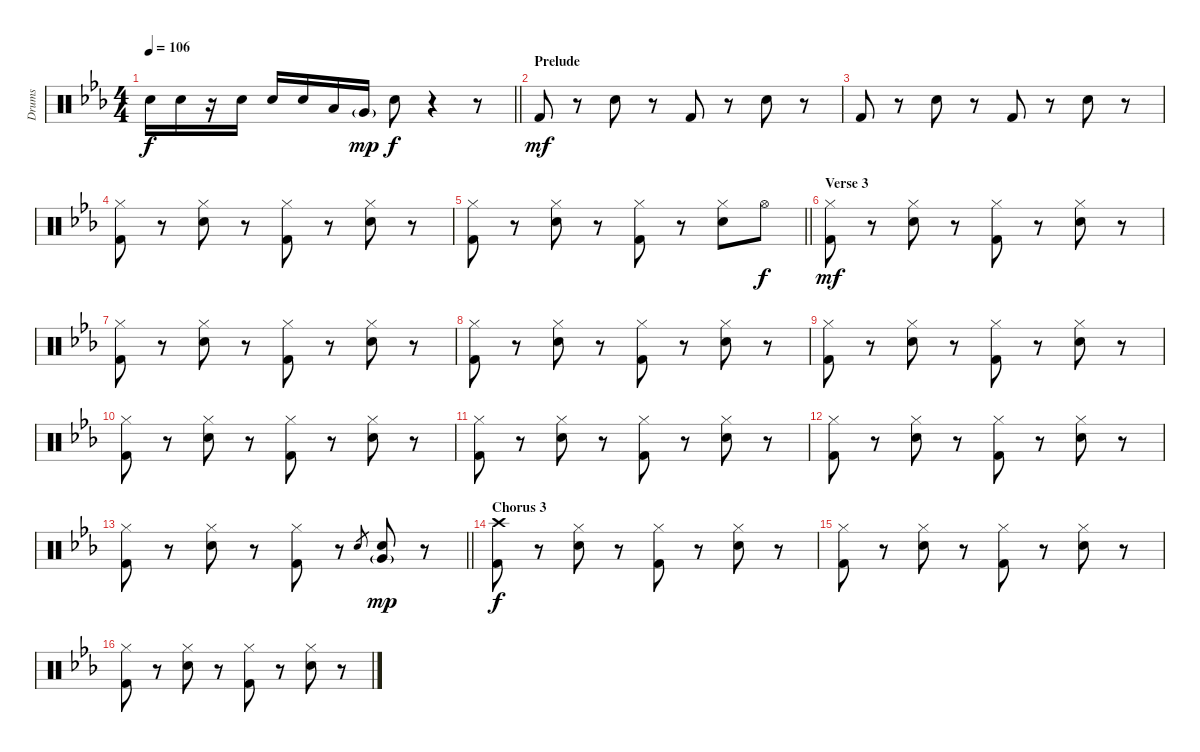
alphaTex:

\track ("Drums" "Drums") {instrument percussion}
\staff {score}
\articulation defaults
\ts (4 4)
\tempo 106
\clef neutral
\barLineRight lightlight
\ks cminor "Snare (hit) 2".16{dy f} "Snare (hit) 2".16
r.16 "Snare (hit) 2".16 "Snare (hit) 2".16 "Snare (hit) 2".16 "Low Tom (hit)".16 "Very Low Tom (hit)"{g}.16{dy mp} "Snare (hit) 2".8{dy f} r.4 r.8 |
\section ("" "Prelude")
"Kick (hit) 2".8{dy mf} r.8 "Snare (hit) 2".8 r.8 "Kick (hit) 2".8 r.8 "Snare (hit) 2".8 r.8 |
"Kick (hit) 2".8 r.8 "Snare (hit) 2".8 r.8 "Kick (hit) 2".8 r.8 "Snare (hit) 2".8 r.8 |
("Hi-Hat (closed)" "Kick (hit) 2").8 r.8 ("Hi-Hat (closed)" "Snare (hit) 2").8 r.8 ("Hi-Hat (closed)" "Kick (hit) 2").8 r.8 ("Hi-Hat (closed)" "Snare (hit) 2").8 r.8 |
\barLineRight lightlight
("Hi-Hat (closed)" "Kick (hit) 2").8 r.8 ("Hi-Hat (closed)" "Snare (hit) 2").8 r.8 ("Hi-Hat (closed)" "Kick (hit) 2").8 r.8 ("Hi-Hat (closed)" "Snare (hit) 2").8 "Hi-Hat (open)".8{dy f} |
\section ("" "Verse 3")
("Hi-Hat (closed)" "Kick (hit) 2").8{dy mf} r.8 ("Hi-Hat (closed)" "Snare (hit) 2").8 r.8 ("Hi-Hat (closed)" "Kick (hit) 2").8 r.8 ("Hi-Hat (closed)" "Snare (hit) 2").8 r.8 |
("Hi-Hat (closed)" "Kick (hit) 2").8 r.8 ("Hi-Hat (closed)" "Snare (hit) 2").8 r.8 ("Hi-Hat (closed)" "Kick (hit) 2").8 r.8 ("Hi-Hat (closed)" "Snare (hit) 2").8 r.8 |
("Hi-Hat (closed)" "Kick (hit) 2").8 r.8 ("Hi-Hat (closed)" "Snare (hit) 2").8 r.8 ("Hi-Hat (closed)" "Kick (hit) 2").8 r.8 ("Hi-Hat (closed)" "Snare (hit) 2").8 r.8 |
("Hi-Hat (closed)" "Kick (hit) 2").8 r.8 ("Hi-Hat (closed)" "Snare (hit) 2").8 r.8 ("Hi-Hat (closed)" "Kick (hit) 2").8 r.8 ("Hi-Hat (closed)" "Snare (hit) 2").8 r.8 |
("Hi-Hat (closed)" "Kick (hit) 2").8 r.8 ("Hi-Hat (closed)" "Snare (hit) 2").8 r.8 ("Hi-Hat (closed)" "Kick (hit) 2").8 r.8 ("Hi-Hat (closed)" "Snare (hit) 2").8 r.8 |
("Hi-Hat (closed)" "Kick (hit) 2").8 r.8 ("Hi-Hat (closed)" "Snare (hit) 2").8 r.8 ("Hi-Hat (closed)" "Kick (hit) 2").8 r.8 ("Hi-Hat (closed)" "Snare (hit) 2").8 r.8 |
("Hi-Hat (closed)" "Kick (hit) 2").8 r.8 ("Hi-Hat (closed)" "Snare (hit) 2").8 r.8 ("Hi-Hat (closed)" "Kick (hit) 2").8 r.8 ("Hi-Hat (closed)" "Snare (hit) 2").8 r.8 |
\barLineRight lightlight
("Hi-Hat (closed)" "Kick (hit) 2").8 r.8 ("Hi-Hat (closed)" "Snare (hit) 2").8 r.8 ("Hi-Hat (closed)" "Kick (hit) 2").8 r.8 "Snare (hit) 2".8{gr} ("Snare (hit) 2" "Very Low Tom (hit)"{g}).8{dy mp} r.8 |
\section ("" "Chorus 3")
("Crash high (hit)" "Kick (hit) 2").8{dy f} r.8 ("Hi-Hat (closed)" "Snare (hit) 2").8 r.8 ("Hi-Hat (closed)" "Kick (hit) 2").8 r.8 ("Hi-Hat (closed)" "Snare (hit) 2").8 r.8 |
("Hi-Hat (closed)" "Kick (hit) 2").8 r.8 ("Hi-Hat (closed)" "Snare (hit) 2").8 r.8 ("Hi-Hat (closed)" "Kick (hit) 2").8 r.8 ("Hi-Hat (closed)" "Snare (hit) 2").8 r.8 |
("Hi-Hat (closed)" "Kick (hit) 2").8 r.8 ("Hi-Hat (closed)" "Snare (hit) 2").8 r.8 ("Hi-Hat (closed)" "Kick (hit) 2").8 r.8 ("Hi-Hat (closed)" "Snare (hit) 2").8 r.8
